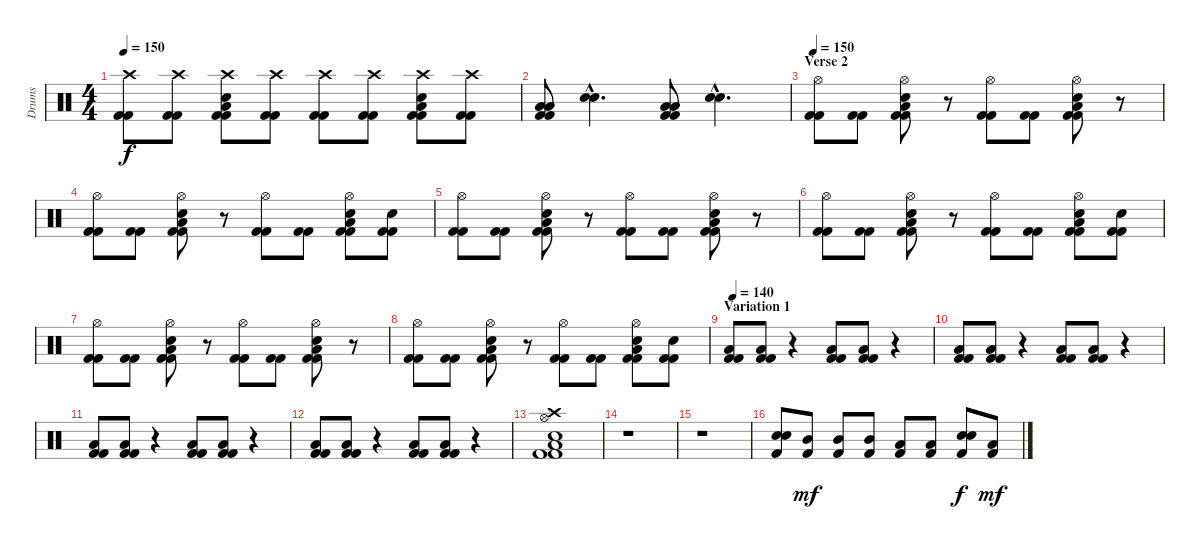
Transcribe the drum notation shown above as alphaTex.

\track ("Drums" "Drums") {instrument percussion}
\staff {score}
\articulation defaults
\ts (4 4)
\tempo 150
\clef neutral
\ks c
("Crash high (hit)" "Kick (hit) 2" "Kick (hit) 2").8{dy f} ("Crash high (hit)" "Kick (hit) 2" "Kick (hit) 2").8 ("Crash high (hit)" "Low Tom (hit)" "Snare (hit) 2" "Kick (hit) 2" "Kick (hit) 2").8 ("Crash high (hit)" "Kick (hit) 2" "Kick (hit) 2").8 ("Crash high (hit)" "Kick (hit) 2" "Kick (hit) 2").8 ("Crash high (hit)" "Kick (hit) 2" "Kick (hit) 2").8 ("Crash high (hit)" "Low Tom (hit)" "Snare (hit) 2" "Kick (hit) 2" "Kick (hit) 2").8 ("Crash high (hit)" "Kick (hit) 2" "Kick (hit) 2").8 |
("Low Tom (hit)" "Low Tom (hit)" "Kick (hit) 2" "Kick (hit) 2").8 ("Snare (hit) 2"{hac} "Snare (hit) 2"{hac}).4{d} ("Low Tom (hit)" "Low Tom (hit)" "Kick (hit) 2" "Kick (hit) 2").8 ("Snare (hit) 2"{hac} "Snare (hit) 2"{hac}).4{d} |
\section ("" "Verse 2")
\tempo 150
("Hi-Hat (open)" "Kick (hit) 2" "Kick (hit) 2").8 ("Kick (hit) 2" "Kick (hit) 2").8 ("Hi-Hat (open)" "Low Tom (hit)" "Snare (hit) 2" "Kick (hit) 2" "Kick (hit) 2").8 r.8 ("Hi-Hat (open)" "Kick (hit) 2" "Kick (hit) 2").8 ("Kick (hit) 2" "Kick (hit) 2").8 ("Hi-Hat (open)" "Low Tom (hit)" "Snare (hit) 2" "Kick (hit) 2" "Kick (hit) 2").8 r.8 |
("Hi-Hat (open)" "Kick (hit) 2" "Kick (hit) 2").8 ("Kick (hit) 2" "Kick (hit) 2").8 ("Hi-Hat (open)" "Low Tom (hit)" "Snare (hit) 2" "Kick (hit) 2" "Kick (hit) 2").8 r.8 ("Hi-Hat (open)" "Kick (hit) 2" "Kick (hit) 2").8 ("Kick (hit) 2" "Kick (hit) 2").8 ("Hi-Hat (open)" "Low Tom (hit)" "Snare (hit) 2" "Kick (hit) 2" "Kick (hit) 2").8 ("Snare (hit) 2" "Kick (hit) 2" "Kick (hit) 2").8 |
("Hi-Hat (open)" "Kick (hit) 2" "Kick (hit) 2").8 ("Kick (hit) 2" "Kick (hit) 2").8 ("Hi-Hat (open)" "Low Tom (hit)" "Snare (hit) 2" "Kick (hit) 2" "Kick (hit) 2").8 r.8 ("Hi-Hat (open)" "Kick (hit) 2" "Kick (hit) 2").8 ("Kick (hit) 2" "Kick (hit) 2").8 ("Hi-Hat (open)" "Low Tom (hit)" "Snare (hit) 2" "Kick (hit) 2" "Kick (hit) 2").8 r.8 |
("Hi-Hat (open)" "Kick (hit) 2" "Kick (hit) 2").8 ("Kick (hit) 2" "Kick (hit) 2").8 ("Hi-Hat (open)" "Low Tom (hit)" "Snare (hit) 2" "Kick (hit) 2" "Kick (hit) 2").8 r.8 ("Hi-Hat (open)" "Kick (hit) 2" "Kick (hit) 2").8 ("Kick (hit) 2" "Kick (hit) 2").8 ("Hi-Hat (open)" "Low Tom (hit)" "Snare (hit) 2" "Kick (hit) 2" "Kick (hit) 2").8 ("Snare (hit) 2" "Kick (hit) 2" "Kick (hit) 2").8 |
("Hi-Hat (open)" "Kick (hit) 2" "Kick (hit) 2").8 ("Kick (hit) 2" "Kick (hit) 2").8 ("Hi-Hat (open)" "Low Tom (hit)" "Snare (hit) 2" "Kick (hit) 2" "Kick (hit) 2").8 r.8 ("Hi-Hat (open)" "Kick (hit) 2" "Kick (hit) 2").8 ("Kick (hit) 2" "Kick (hit) 2").8 ("Hi-Hat (open)" "Low Tom (hit)" "Snare (hit) 2" "Kick (hit) 2" "Kick (hit) 2").8 r.8 |
("Hi-Hat (open)" "Kick (hit) 2" "Kick (hit) 2").8 ("Kick (hit) 2" "Kick (hit) 2").8 ("Hi-Hat (open)" "Low Tom (hit)" "Snare (hit) 2" "Kick (hit) 2" "Kick (hit) 2").8 r.8 ("Hi-Hat (open)" "Kick (hit) 2" "Kick (hit) 2").8 ("Kick (hit) 2" "Kick (hit) 2").8 ("Hi-Hat (open)" "Low Tom (hit)" "Snare (hit) 2" "Kick (hit) 2" "Kick (hit) 2").8 ("Snare (hit) 2" "Kick (hit) 2" "Kick (hit) 2").8 |
\section ("" "Variation 1")
\tempo 130
\tempo 140
("Low Tom (hit)" "Kick (hit) 2" "Kick (hit) 2").8 ("Low Tom (hit)" "Kick (hit) 2" "Kick (hit) 2").8 r.4 ("Low Tom (hit)" "Kick (hit) 2" "Kick (hit) 2").8 ("Low Tom (hit)" "Kick (hit) 2" "Kick (hit) 2").8 r.4 |
("Low Tom (hit)" "Kick (hit) 2" "Kick (hit) 2").8 ("Low Tom (hit)" "Kick (hit) 2" "Kick (hit) 2").8 r.4 ("Low Tom (hit)" "Kick (hit) 2" "Kick (hit) 2").8 ("Low Tom (hit)" "Kick (hit) 2" "Kick (hit) 2").8 r.4 |
("Low Tom (hit)" "Kick (hit) 2" "Kick (hit) 2").8 ("Low Tom (hit)" "Kick (hit) 2" "Kick (hit) 2").8 r.4 ("Low Tom (hit)" "Kick (hit) 2" "Kick (hit) 2").8 ("Low Tom (hit)" "Kick (hit) 2" "Kick (hit) 2").8 r.4 |
("Low Tom (hit)" "Kick (hit) 2" "Kick (hit) 2").8 ("Low Tom (hit)" "Kick (hit) 2" "Kick (hit) 2").8 r.4 ("Low Tom (hit)" "Kick (hit) 2" "Kick (hit) 2").8 ("Low Tom (hit)" "Kick (hit) 2" "Kick (hit) 2").8 r.4 |
("Crash high (hit)" "Hi-Hat (open)" "Low Tom (hit)" "Snare (hit) 2" "Kick (hit) 2" "Kick (hit) 2").1 |
r.1 |
r.1 |
("Snare (hit) 2" "Snare (hit) 2" "Kick (hit) 2").8 ("Mid Tom (hit)" "Kick (hit) 2").8{dy mf} ("Mid Tom (hit)" "Kick (hit) 2").8 ("Mid Tom (hit)" "Kick (hit) 2").8 ("Low Tom (hit)" "Kick (hit) 2").8 ("Low Tom (hit)" "Kick (hit) 2").8 ("Snare (hit) 2" "Snare (hit) 2" "Kick (hit) 2").8{dy f} ("Low Tom (hit)" "Kick (hit) 2").8{dy mf}
